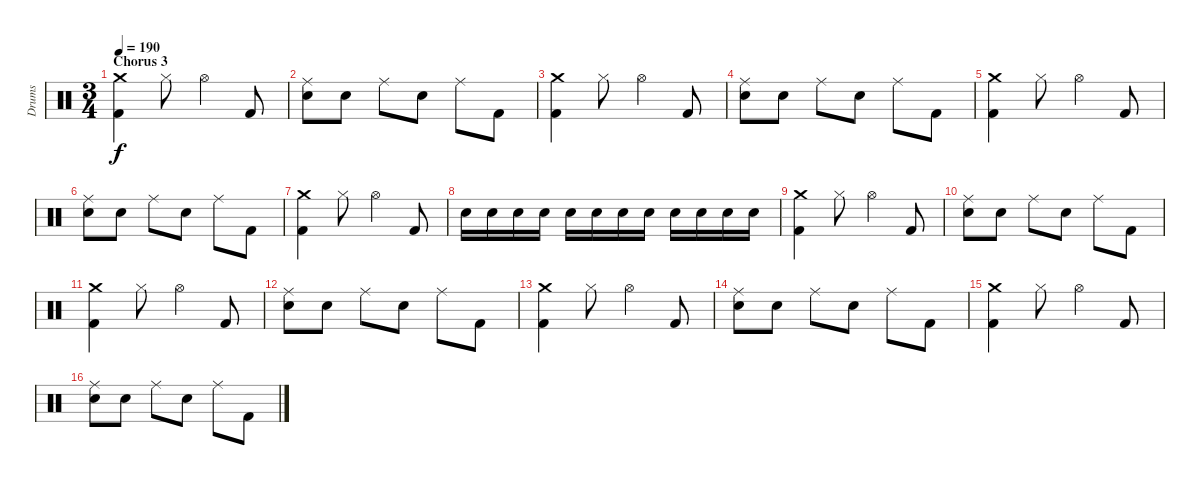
\track ("Drums" "Drums") {instrument percussion}
\staff {score}
\articulation defaults
\ts (3 4)
\section ("" "Chorus 3")
\tempo 190
\clef neutral
\ks c
("Crash medium (hit)" "Kick (hit) 2").4{dy f} "Hi-Hat (closed)".8 "Hi-Hat (open)".4 "Kick (hit) 2".8 |
("Ride (middle)" "Snare (hit) 2").8 "Snare (hit) 2".8 "Ride (middle)".8 "Snare (hit) 2".8 "Ride (middle)".8 "Kick (hit) 2".8 |
("Crash medium (hit)" "Kick (hit) 2").4 "Hi-Hat (closed)".8 "Hi-Hat (open)".4 "Kick (hit) 2".8 |
("Ride (middle)" "Snare (hit) 2").8 "Snare (hit) 2".8 "Ride (middle)".8 "Snare (hit) 2".8 "Ride (middle)".8 "Kick (hit) 2".8 |
("Crash medium (hit)" "Kick (hit) 2").4 "Hi-Hat (closed)".8 "Hi-Hat (open)".4 "Kick (hit) 2".8 |
("Ride (middle)" "Snare (hit) 2").8 "Snare (hit) 2".8 "Ride (middle)".8 "Snare (hit) 2".8 "Ride (middle)".8 "Kick (hit) 2".8 |
("Crash medium (hit)" "Kick (hit) 2").4 "Hi-Hat (closed)".8 "Hi-Hat (open)".4 "Kick (hit) 2".8 |
"Snare (hit) 2".16 "Snare (hit) 2".16 "Snare (hit) 2".16 "Snare (hit) 2".16 "Snare (hit) 2".16 "Snare (hit) 2".16 "Snare (hit) 2".16 "Snare (hit) 2".16 "Snare (hit) 2".16 "Snare (hit) 2".16 "Snare (hit) 2".16 "Snare (hit) 2".16 |
("Crash medium (hit)" "Kick (hit) 2").4 "Hi-Hat (closed)".8 "Hi-Hat (open)".4 "Kick (hit) 2".8 |
("Ride (middle)" "Snare (hit) 2").8 "Snare (hit) 2".8 "Ride (middle)".8 "Snare (hit) 2".8 "Ride (middle)".8 "Kick (hit) 2".8 |
("Crash medium (hit)" "Kick (hit) 2").4 "Hi-Hat (closed)".8 "Hi-Hat (open)".4 "Kick (hit) 2".8 |
("Ride (middle)" "Snare (hit) 2").8 "Snare (hit) 2".8 "Ride (middle)".8 "Snare (hit) 2".8 "Ride (middle)".8 "Kick (hit) 2".8 |
("Crash medium (hit)" "Kick (hit) 2").4 "Hi-Hat (closed)".8 "Hi-Hat (open)".4 "Kick (hit) 2".8 |
("Ride (middle)" "Snare (hit) 2").8 "Snare (hit) 2".8 "Ride (middle)".8 "Snare (hit) 2".8 "Ride (middle)".8 "Kick (hit) 2".8 |
("Crash medium (hit)" "Kick (hit) 2").4 "Hi-Hat (closed)".8 "Hi-Hat (open)".4 "Kick (hit) 2".8 |
("Ride (middle)" "Snare (hit) 2").8 "Snare (hit) 2".8 "Ride (middle)".8 "Snare (hit) 2".8 "Ride (middle)".8 "Kick (hit) 2".8
